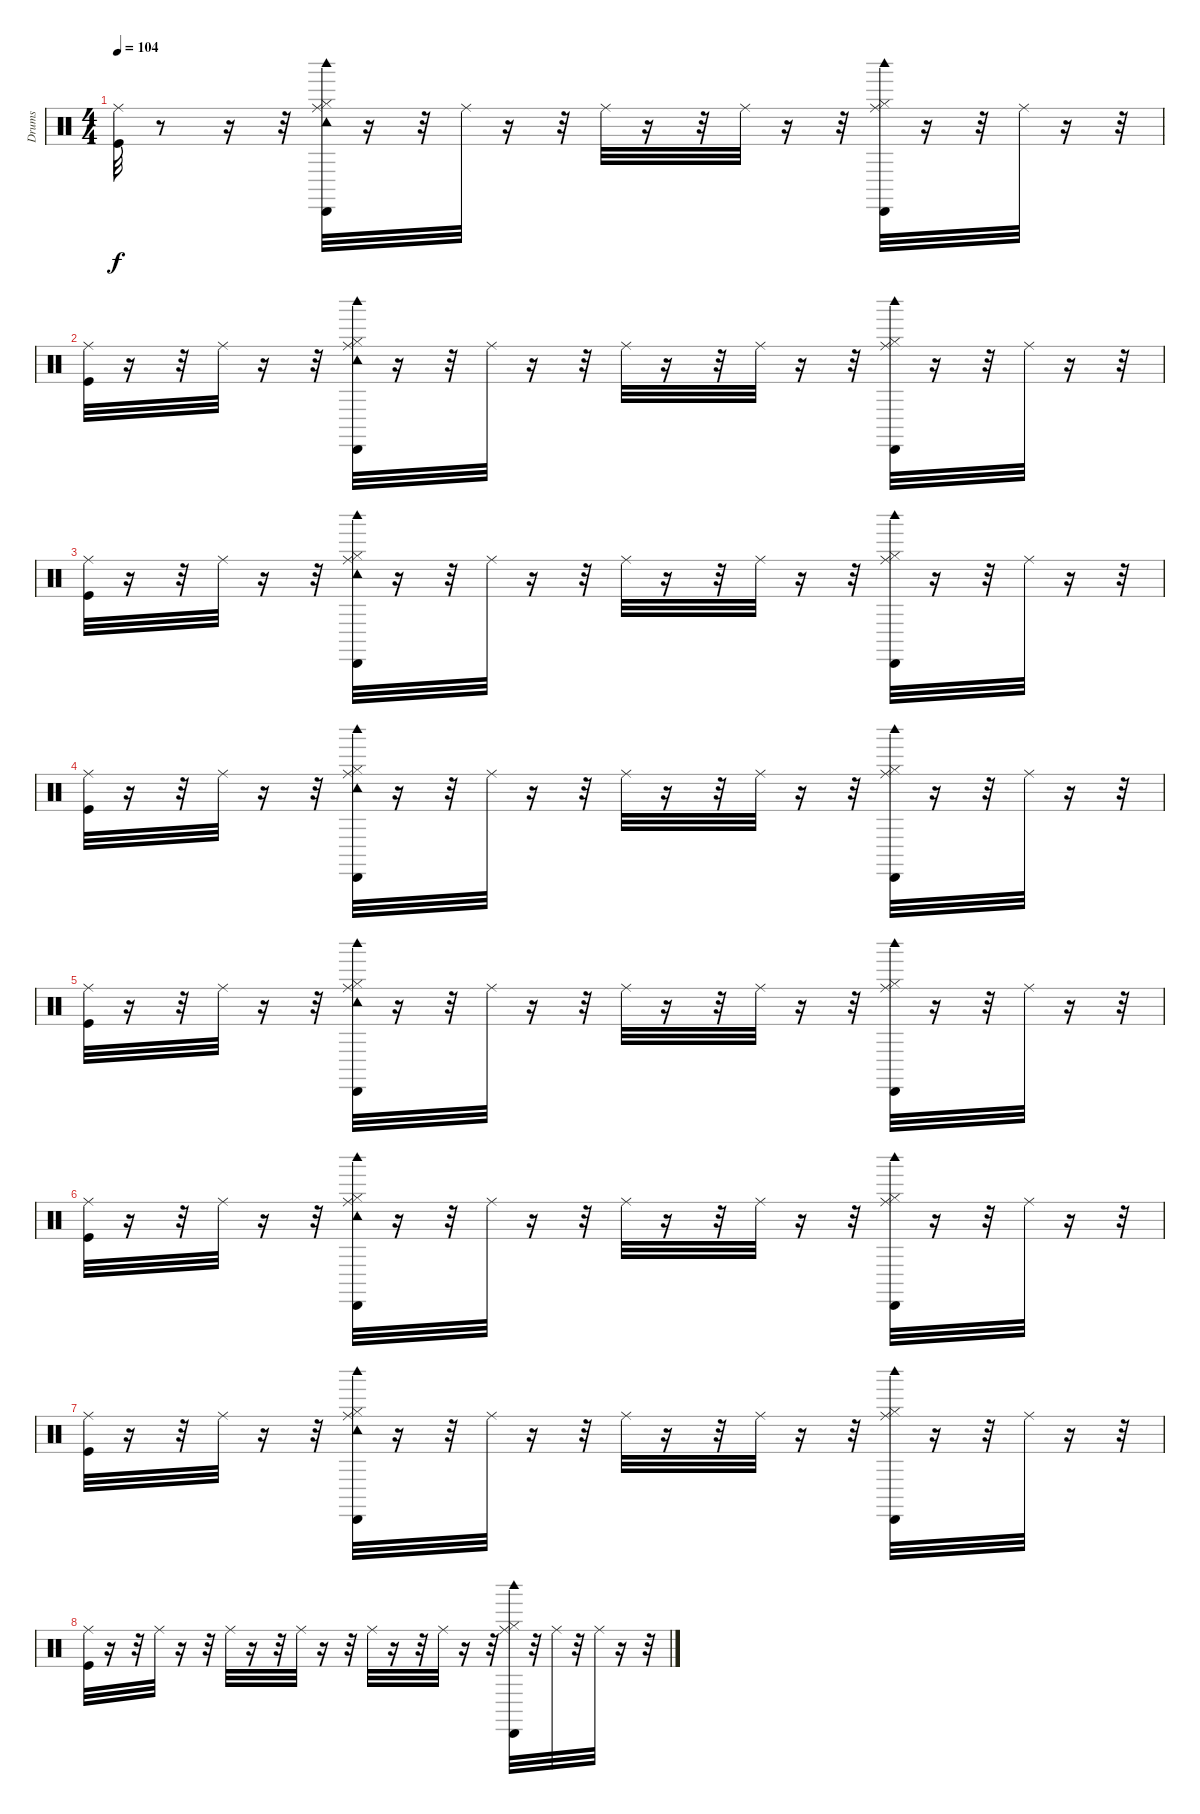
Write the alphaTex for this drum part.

\track ("Drums" "Drums") {instrument percussion}
\staff {score}
\articulation defaults
\ts (4 4)
\tempo 104
\clef neutral
\ks c
("Kick (hit)" "Ride (middle)").32{dy f} r.8 r.16 r.32 ("Hi-Hat (closed)" "Ride (middle)" "Tambourine (hit)" "Cabasa (hit)" "Woodblock high (hit)").32 r.16 r.32 "Ride (middle)".32 r.16 r.32 "Ride (middle)".32 r.16 r.32 "Ride (middle)".32 r.16 r.32 ("Hi-Hat (closed)" "Ride (middle)" "Cabasa (hit)" "Woodblock high (hit)").32 r.16 r.32 "Ride (middle)".32 r.16 r.32 |
("Kick (hit)" "Ride (middle)").32 r.16 r.32 "Ride (middle)".32 r.16 r.32 ("Hi-Hat (closed)" "Ride (middle)" "Tambourine (hit)" "Cabasa (hit)" "Woodblock high (hit)").32 r.16 r.32 "Ride (middle)".32 r.16 r.32 "Ride (middle)".32 r.16 r.32 "Ride (middle)".32 r.16 r.32 ("Hi-Hat (closed)" "Ride (middle)" "Cabasa (hit)" "Woodblock high (hit)").32 r.16 r.32 "Ride (middle)".32 r.16 r.32 |
("Kick (hit)" "Ride (middle)").32 r.16 r.32 "Ride (middle)".32 r.16 r.32 ("Hi-Hat (closed)" "Ride (middle)" "Tambourine (hit)" "Cabasa (hit)" "Woodblock high (hit)").32 r.16 r.32 "Ride (middle)".32 r.16 r.32 "Ride (middle)".32 r.16 r.32 "Ride (middle)".32 r.16 r.32 ("Hi-Hat (closed)" "Ride (middle)" "Cabasa (hit)" "Woodblock high (hit)").32 r.16 r.32 "Ride (middle)".32 r.16 r.32 |
("Kick (hit)" "Ride (middle)").32 r.16 r.32 "Ride (middle)".32 r.16 r.32 ("Hi-Hat (closed)" "Ride (middle)" "Tambourine (hit)" "Cabasa (hit)" "Woodblock high (hit)").32 r.16 r.32 "Ride (middle)".32 r.16 r.32 "Ride (middle)".32 r.16 r.32 "Ride (middle)".32 r.16 r.32 ("Hi-Hat (closed)" "Ride (middle)" "Cabasa (hit)" "Woodblock high (hit)").32 r.16 r.32 "Ride (middle)".32 r.16 r.32 |
("Kick (hit)" "Ride (middle)").32 r.16 r.32 "Ride (middle)".32 r.16 r.32 ("Hi-Hat (closed)" "Ride (middle)" "Tambourine (hit)" "Cabasa (hit)" "Woodblock high (hit)").32 r.16 r.32 "Ride (middle)".32 r.16 r.32 "Ride (middle)".32 r.16 r.32 "Ride (middle)".32 r.16 r.32 ("Hi-Hat (closed)" "Ride (middle)" "Cabasa (hit)" "Woodblock high (hit)").32 r.16 r.32 "Ride (middle)".32 r.16 r.32 |
("Kick (hit)" "Ride (middle)").32 r.16 r.32 "Ride (middle)".32 r.16 r.32 ("Hi-Hat (closed)" "Ride (middle)" "Tambourine (hit)" "Cabasa (hit)" "Woodblock high (hit)").32 r.16 r.32 "Ride (middle)".32 r.16 r.32 "Ride (middle)".32 r.16 r.32 "Ride (middle)".32 r.16 r.32 ("Hi-Hat (closed)" "Ride (middle)" "Cabasa (hit)" "Woodblock high (hit)").32 r.16 r.32 "Ride (middle)".32 r.16 r.32 |
("Kick (hit)" "Ride (middle)").32 r.16 r.32 "Ride (middle)".32 r.16 r.32 ("Hi-Hat (closed)" "Ride (middle)" "Tambourine (hit)" "Cabasa (hit)" "Woodblock high (hit)").32 r.16 r.32 "Ride (middle)".32 r.16 r.32 "Ride (middle)".32 r.16 r.32 "Ride (middle)".32 r.16 r.32 ("Hi-Hat (closed)" "Ride (middle)" "Cabasa (hit)" "Woodblock high (hit)").32 r.16 r.32 "Ride (middle)".32 r.16 r.32 |
("Kick (hit)" "Ride (middle)").32 r.16 r.32 "Ride (middle)".32 r.16 r.32 "Ride (middle)".32 r.16 r.32 "Ride (middle)".32 r.16 r.32 "Ride (middle)".32 r.16 r.32 "Ride (middle)".32 r.16 r.32 ("Hi-Hat (closed)" "Ride (middle)" "Cabasa (hit)" "Woodblock high (hit)").32 r.32 "Ride (middle)".32 r.32 "Ride (middle)".32 r.16 r.32
